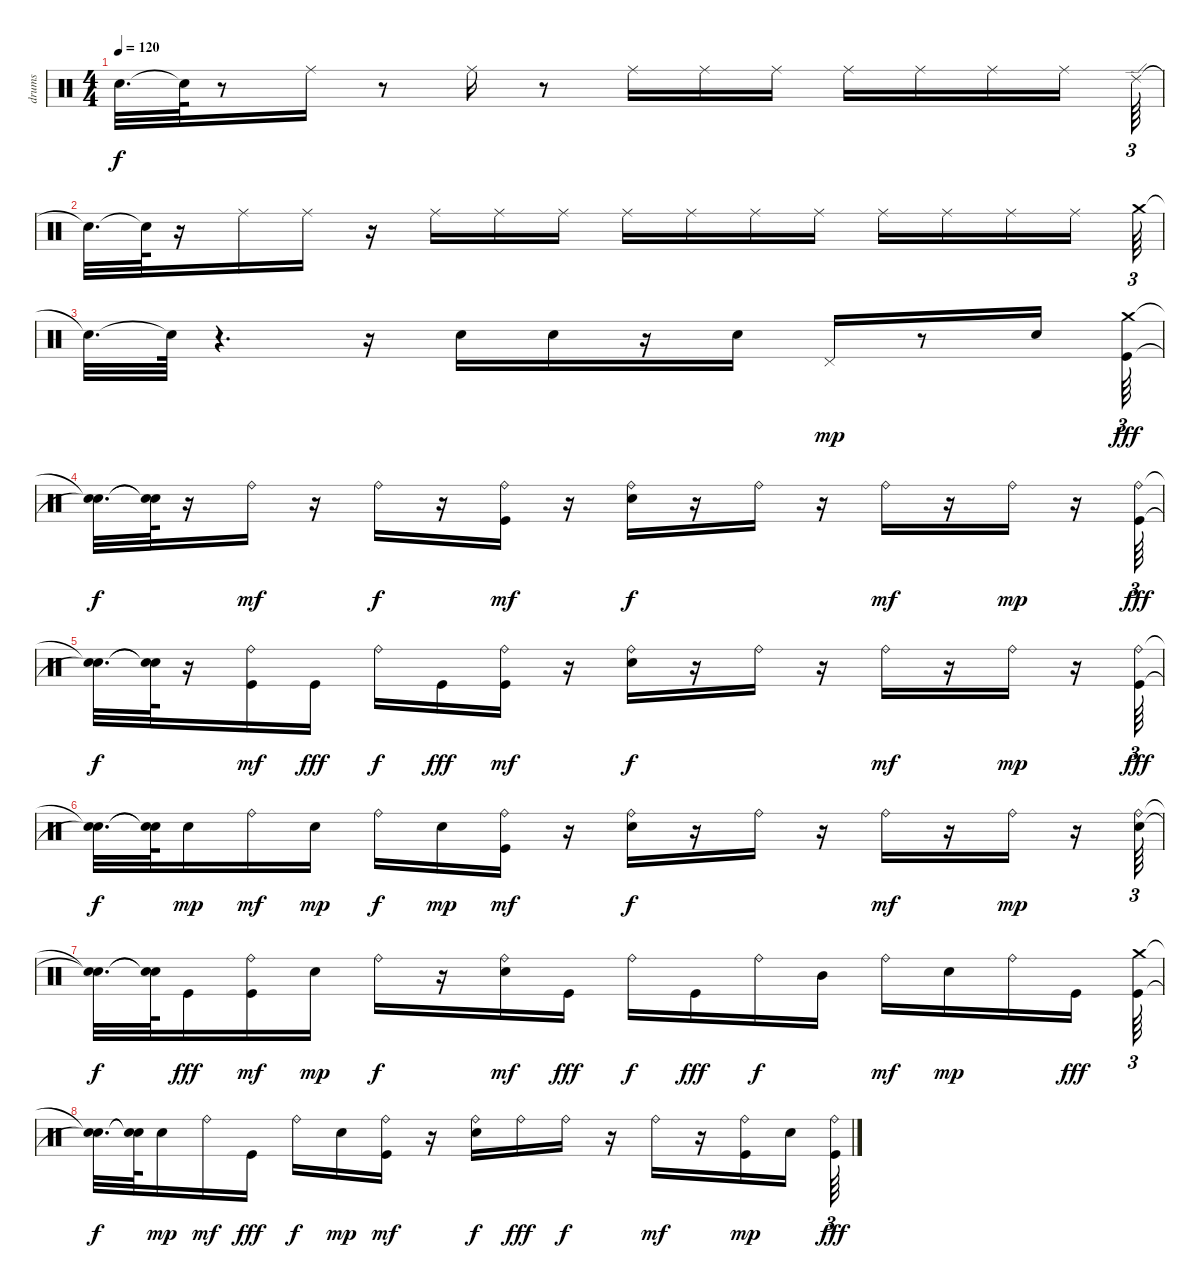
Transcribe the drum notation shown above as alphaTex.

\track ("drums" "drums") {instrument percussion}
\staff {score}
\articulation defaults
\ts (4 4)
\tempo 120
\clef neutral
\ks c "Snare (hit)"{t}.32{d dy f} "Snare (hit)"{t}.64
r.8 "Ride (middle)".16 r.8 "Ride (middle)".16 r.8 "Ride (middle)".16 "Ride (middle)".16 "Ride (middle)".16 "Ride (middle)".16 "Ride (middle)".16 "Ride (middle)".16 "Ride (middle)".16 "Ride (edge) 2".64{tu (3 2)} |
"Snare (hit)"{t}.32{d} "Snare (hit)"{t}.64 r.16 "Ride (middle)".16 "Ride (middle)".16 r.16 "Ride (middle)".16 "Ride (middle)".16 "Ride (middle)".16 "Ride (middle)".16 "Ride (middle)".16 "Ride (middle)".16 "Ride (middle)".16 "Ride (middle)".16 "Ride (middle)".16 "Ride (middle)".16 "Ride (middle)".16 "Crash medium (hit)".64{tu (3 2)} |
"Snare (hit)"{t}.32{d} "Snare (hit)"{t}.64 r.4{d} r.16 "Snare (hit) 2".16 "Snare (hit) 2".16 r.16 "Snare (hit) 2".16 "Pedal Hi-Hat (hit)".16{dy mp} r.8 "Snare (hit) 2".16 ("Kick (hit)" "Crash medium (hit)").64{tu (3 2) dy fff} |
("Snare (hit)"{t} "Snare (hit)"{t}).32{d dy f} ("Snare (hit)"{t} "Snare (hit)"{t}).64 r.16 "Ride (bell)".16{dy mf} r.16 "Ride (bell)".16{dy f} r.16 ("Kick (hit)" "Ride (bell)").16{dy mf} r.16 ("Snare (hit) 2" "Ride (bell)").16{dy f} r.16 "Ride (bell)".16 r.16 "Ride (bell)".16{dy mf} r.16 "Ride (bell)".16{dy mp} r.16 ("Kick (hit)" "Ride (bell)").64{tu (3 2) dy fff} |
("Snare (hit)"{t} "Snare (hit)"{t}).32{d dy f} ("Snare (hit)"{t} "Snare (hit)"{t}).64 r.16 ("Kick (hit)" "Ride (bell)").16{dy mf} "Kick (hit)".16{dy fff} "Ride (bell)".16{dy f} "Kick (hit)".16{dy fff} ("Kick (hit)" "Ride (bell)").16{dy mf} r.16 ("Snare (hit) 2" "Ride (bell)").16{dy f} r.16 "Ride (bell)".16 r.16 "Ride (bell)".16{dy mf} r.16 "Ride (bell)".16{dy mp} r.16 ("Kick (hit)" "Ride (bell)").64{tu (3 2) dy fff} |
("Snare (hit)"{t} "Snare (hit)"{t}).32{d dy f} ("Snare (hit)"{t} "Snare (hit)"{t}).64 "Snare (hit) 2".16{dy mp} "Ride (bell)".16{dy mf} "Snare (hit) 2".16{dy mp} "Ride (bell)".16{dy f} "Snare (hit) 2".16{dy mp} ("Kick (hit)" "Ride (bell)").16{dy mf} r.16 ("Snare (hit) 2" "Ride (bell)").16{dy f} r.16 "Ride (bell)".16 r.16 "Ride (bell)".16{dy mf} r.16 "Ride (bell)".16{dy mp} r.16 ("Snare (hit) 2" "Ride (bell)").64{tu (3 2)} |
("Snare (hit)"{t} "Snare (hit)"{t}).32{d dy f} ("Snare (hit)"{t} "Snare (hit)"{t}).64 "Kick (hit)".16{dy fff} ("Kick (hit)" "Ride (bell)").16{dy mf} "Snare (hit) 2".16{dy mp} "Ride (bell)".16{dy f} r.16 ("Snare (hit) 2" "Ride (bell)").16{dy mf} "Kick (hit)".16{dy fff} "Ride (bell)".16{dy f} "Kick (hit)".16{dy fff} "Ride (bell)".16{dy f} "Mid Tom (hit)".16 "Ride (bell)".16{dy mf} "Snare (hit) 2".16{dy mp} "Ride (bell)".16 "Kick (hit)".16{dy fff} ("Kick (hit)" "Crash medium (hit)").64{tu (3 2)} |
("Snare (hit)"{t} "Snare (hit)"{t}).32{d dy f} ("Snare (hit)"{t} "Snare (hit)"{t}).64 "Snare (hit) 2".16{dy mp} "Ride (bell)".16{dy mf} "Kick (hit)".16{dy fff} "Ride (bell)".16{dy f} "Snare (hit) 2".16{dy mp} ("Kick (hit)" "Ride (bell)").16{dy mf} r.16 ("Snare (hit) 2" "Ride (bell)").16{dy f} "Ride (bell)".16{dy fff} "Ride (bell)".16{dy f} r.16 "Ride (bell)".16{dy mf} r.16 ("Kick (hit)" "Ride (bell)").16{dy mp} "Snare (hit) 2".16 ("Kick (hit)" "Ride (bell)").64{tu (3 2) dy fff}
